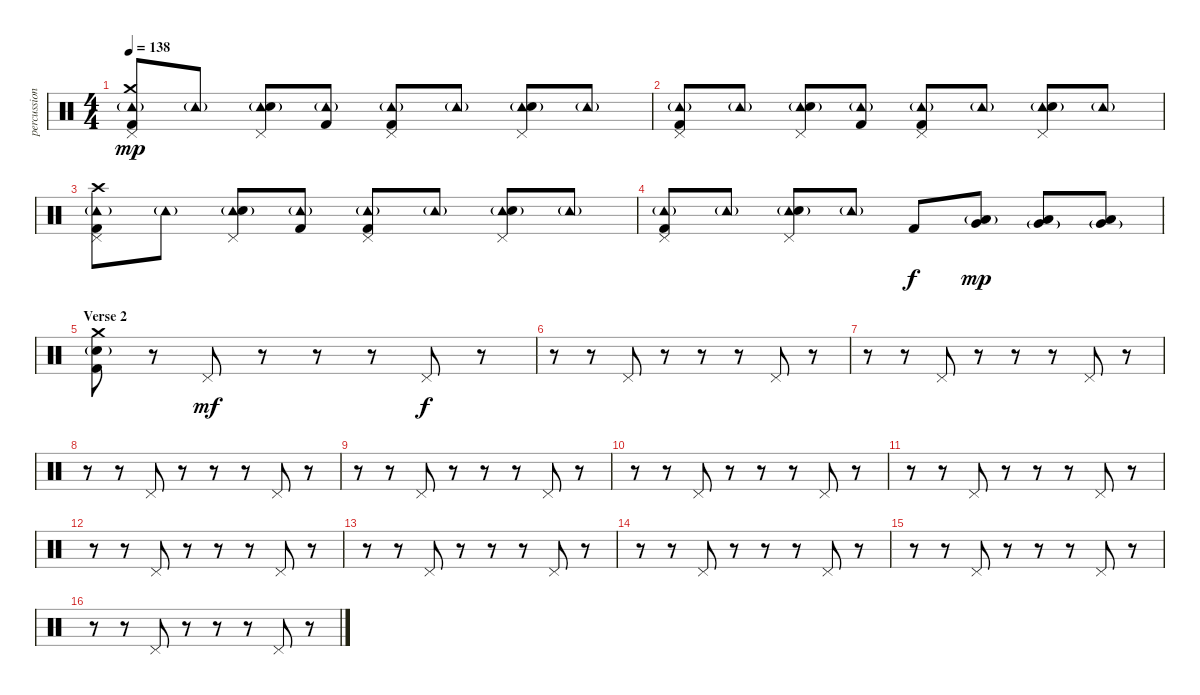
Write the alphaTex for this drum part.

\track ("percussion - vom" "percussion") {instrument percussion}
\staff {score}
\articulation defaults
\ts (4 4)
\tempo 138
\clef neutral
\ks c
("Pedal Hi-Hat (hit)" "Tambourine (hit)"{g} "Crash medium (hit)" "Kick (hit) 2").8{dy mp} "Tambourine (hit)"{g}.8 ("Pedal Hi-Hat (hit)" "Tambourine (hit)"{g} "Snare (hit) 2").8 ("Tambourine (hit)"{g} "Kick (hit) 2").8 ("Pedal Hi-Hat (hit)" "Tambourine (hit)"{g} "Kick (hit) 2").8 "Tambourine (hit)"{g}.8 ("Pedal Hi-Hat (hit)" "Tambourine (hit)"{g} "Snare (hit) 2").8 "Tambourine (hit)"{g}.8 |
("Pedal Hi-Hat (hit)" "Tambourine (hit)"{g} "Kick (hit) 2").8 "Tambourine (hit)"{g}.8 ("Pedal Hi-Hat (hit)" "Tambourine (hit)"{g} "Snare (hit) 2").8 ("Tambourine (hit)"{g} "Kick (hit) 2").8 ("Pedal Hi-Hat (hit)" "Tambourine (hit)"{g} "Kick (hit) 2").8 "Tambourine (hit)"{g}.8 ("Pedal Hi-Hat (hit)" "Tambourine (hit)"{g} "Snare (hit) 2").8 "Tambourine (hit)"{g}.8 |
("Pedal Hi-Hat (hit)" "Tambourine (hit)"{g} "Crash high (hit)" "Kick (hit) 2").8 "Tambourine (hit)"{g}.8 ("Pedal Hi-Hat (hit)" "Tambourine (hit)"{g} "Snare (hit) 2").8 ("Tambourine (hit)"{g} "Kick (hit) 2").8 ("Pedal Hi-Hat (hit)" "Tambourine (hit)"{g} "Kick (hit) 2").8 "Tambourine (hit)"{g}.8 ("Pedal Hi-Hat (hit)" "Tambourine (hit)"{g} "Snare (hit) 2").8 "Tambourine (hit)"{g}.8 |
("Pedal Hi-Hat (hit)" "Tambourine (hit)"{g} "Kick (hit) 2").8 "Tambourine (hit)"{g}.8 ("Pedal Hi-Hat (hit)" "Tambourine (hit)"{g} "Snare (hit) 2").8 "Tambourine (hit)"{g}.8 "Kick (hit) 2".8{dy f} ("Very Low Tom (hit)" "Low Tom (hit)"{g}).8{dy mp} ("Low Floor Tom (hit)" "Very Low Tom (hit)"{g}).8 ("Low Floor Tom (hit)" "Very Low Tom (hit)"{g}).8 |
\section ("" "Verse 2")
("Crash medium (hit)" "Snare (hit) 2"{g} "Kick (hit) 2").8 r.8 "Pedal Hi-Hat (hit)".8{dy mf} r.8 r.8 r.8 "Pedal Hi-Hat (hit)".8{dy f} r.8 |
r.8 r.8 "Pedal Hi-Hat (hit)".8 r.8 r.8 r.8 "Pedal Hi-Hat (hit)".8 r.8 |
r.8 r.8 "Pedal Hi-Hat (hit)".8 r.8 r.8 r.8 "Pedal Hi-Hat (hit)".8 r.8 |
r.8 r.8 "Pedal Hi-Hat (hit)".8 r.8 r.8 r.8 "Pedal Hi-Hat (hit)".8 r.8 |
r.8 r.8 "Pedal Hi-Hat (hit)".8 r.8 r.8 r.8 "Pedal Hi-Hat (hit)".8 r.8 |
r.8 r.8 "Pedal Hi-Hat (hit)".8 r.8 r.8 r.8 "Pedal Hi-Hat (hit)".8 r.8 |
r.8 r.8 "Pedal Hi-Hat (hit)".8 r.8 r.8 r.8 "Pedal Hi-Hat (hit)".8 r.8 |
r.8 r.8 "Pedal Hi-Hat (hit)".8 r.8 r.8 r.8 "Pedal Hi-Hat (hit)".8 r.8 |
r.8 r.8 "Pedal Hi-Hat (hit)".8 r.8 r.8 r.8 "Pedal Hi-Hat (hit)".8 r.8 |
r.8 r.8 "Pedal Hi-Hat (hit)".8 r.8 r.8 r.8 "Pedal Hi-Hat (hit)".8 r.8 |
r.8 r.8 "Pedal Hi-Hat (hit)".8 r.8 r.8 r.8 "Pedal Hi-Hat (hit)".8 r.8 |
r.8 r.8 "Pedal Hi-Hat (hit)".8 r.8 r.8 r.8 "Pedal Hi-Hat (hit)".8 r.8
